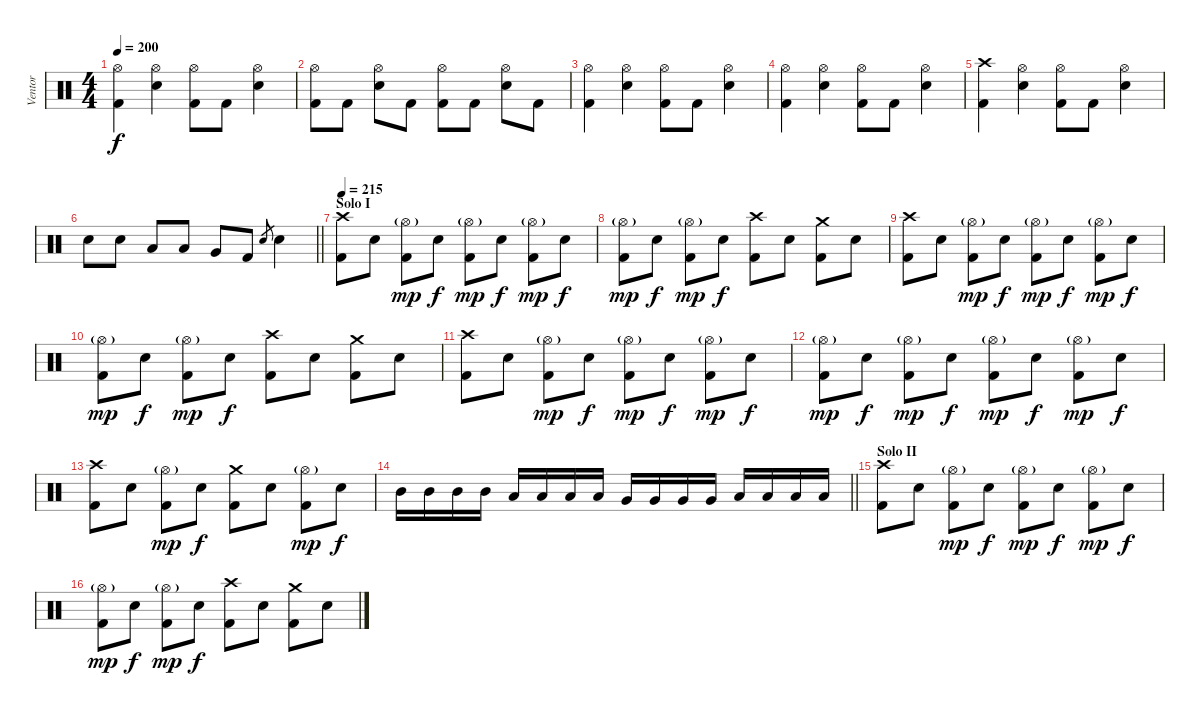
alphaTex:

\track ("Ventor" "Ventor") {instrument percussion}
\staff {score}
\articulation defaults
\ts (4 4)
\tempo 200
\clef neutral
\ks c
("Hi-Hat (open)" "Kick (hit) 2").4{dy f} ("Hi-Hat (open)" "Electric Snare (hit)").4 ("Hi-Hat (open)" "Kick (hit) 2").8 "Kick (hit) 2".8 ("Hi-Hat (open)" "Electric Snare (hit)").4 |
("Hi-Hat (open)" "Kick (hit) 2").8 "Kick (hit) 2".8 ("Hi-Hat (open)" "Electric Snare (hit)").8 "Kick (hit) 2".8 ("Hi-Hat (open)" "Kick (hit) 2").8 "Kick (hit) 2".8 ("Hi-Hat (open)" "Electric Snare (hit)").8 "Kick (hit) 2".8 |
("Hi-Hat (open)" "Kick (hit) 2").4 ("Hi-Hat (open)" "Electric Snare (hit)").4 ("Hi-Hat (open)" "Kick (hit) 2").8 "Kick (hit) 2".8 ("Hi-Hat (open)" "Electric Snare (hit)").4 |
("Hi-Hat (open)" "Kick (hit) 2").4 ("Hi-Hat (open)" "Electric Snare (hit)").4 ("Hi-Hat (open)" "Kick (hit) 2").8 "Kick (hit) 2".8 ("Hi-Hat (open)" "Electric Snare (hit)").4 |
("Crash high (hit)" "Kick (hit) 2").4 ("Hi-Hat (open)" "Electric Snare (hit)").4 ("Hi-Hat (open)" "Kick (hit) 2").8 "Kick (hit) 2".8 ("Hi-Hat (open)" "Electric Snare (hit)").4 |
\barLineRight lightlight "Electric Snare (hit)".8 "Electric Snare (hit)".8 "Low Tom (hit)".8 "Low Tom (hit)".8 "Very Low Tom (hit)".8 "Kick (hit) 2".8 "Electric Snare (hit)".8{gr} "Electric Snare (hit)".4
|
\section ("" "Solo I")
\tempo 215
("Crash high (hit)" "Kick (hit) 2").8 "Electric Snare (hit)".8 ("Hi-Hat (open)"{g} "Kick (hit) 2").8{dy mp} "Electric Snare (hit)".8{dy f} ("Hi-Hat (open)"{g} "Kick (hit) 2").8{dy mp} "Electric Snare (hit)".8{dy f} ("Hi-Hat (open)"{g} "Kick (hit) 2").8{dy mp} "Electric Snare (hit)".8{dy f} |
("Hi-Hat (open)"{g} "Kick (hit) 2").8{dy mp} "Electric Snare (hit)".8{dy f} ("Hi-Hat (open)"{g} "Kick (hit) 2").8{dy mp} "Electric Snare (hit)".8{dy f} ("Crash high (hit)" "Kick (hit) 2").8 "Electric Snare (hit)".8 ("Crash medium (hit)" "Kick (hit) 2").8 "Electric Snare (hit)".8 |
("Crash high (hit)" "Kick (hit) 2").8 "Electric Snare (hit)".8 ("Hi-Hat (open)"{g} "Kick (hit) 2").8{dy mp} "Electric Snare (hit)".8{dy f} ("Hi-Hat (open)"{g} "Kick (hit) 2").8{dy mp} "Electric Snare (hit)".8{dy f} ("Hi-Hat (open)"{g} "Kick (hit) 2").8{dy mp} "Electric Snare (hit)".8{dy f} |
("Hi-Hat (open)"{g} "Kick (hit) 2").8{dy mp} "Electric Snare (hit)".8{dy f} ("Hi-Hat (open)"{g} "Kick (hit) 2").8{dy mp} "Electric Snare (hit)".8{dy f} ("Crash high (hit)" "Kick (hit) 2").8 "Electric Snare (hit)".8 ("Crash medium (hit)" "Kick (hit) 2").8 "Electric Snare (hit)".8 |
("Crash high (hit)" "Kick (hit) 2").8 "Electric Snare (hit)".8 ("Hi-Hat (open)"{g} "Kick (hit) 2").8{dy mp} "Electric Snare (hit)".8{dy f} ("Hi-Hat (open)"{g} "Kick (hit) 2").8{dy mp} "Electric Snare (hit)".8{dy f} ("Hi-Hat (open)"{g} "Kick (hit) 2").8{dy mp} "Electric Snare (hit)".8{dy f} |
("Hi-Hat (open)"{g} "Kick (hit) 2").8{dy mp} "Electric Snare (hit)".8{dy f} ("Hi-Hat (open)"{g} "Kick (hit) 2").8{dy mp} "Electric Snare (hit)".8{dy f} ("Hi-Hat (open)"{g} "Kick (hit) 2").8{dy mp} "Electric Snare (hit)".8{dy f} ("Hi-Hat (open)"{g} "Kick (hit) 2").8{dy mp} "Electric Snare (hit)".8{dy f} |
("Crash high (hit)" "Kick (hit) 2").8 "Electric Snare (hit)".8 ("Hi-Hat (open)"{g} "Kick (hit) 2").8{dy mp} "Electric Snare (hit)".8{dy f} ("Crash medium (hit)" "Kick (hit) 2").8 "Electric Snare (hit)".8 ("Hi-Hat (open)"{g} "Kick (hit) 2").8{dy mp} "Electric Snare (hit)".8{dy f} |
\barLineRight lightlight "Mid Tom (hit)".16 "Mid Tom (hit)".16 "Mid Tom (hit)".16 "Mid Tom (hit)".16 "Low Tom (hit)".16 "Low Tom (hit)".16 "Low Tom (hit)".16 "Low Tom (hit)".16 "Very Low Tom (hit)".16 "Very Low Tom (hit)".16 "Very Low Tom (hit)".16 "Very Low Tom (hit)".16 "Low Floor Tom (hit)".16 "Low Floor Tom (hit)".16 "Low Floor Tom (hit)".16 "Low Floor Tom (hit)".16
|
\section ("" "Solo II")
("Crash high (hit)" "Kick (hit) 2").8 "Electric Snare (hit)".8 ("Hi-Hat (open)"{g} "Kick (hit) 2").8{dy mp} "Electric Snare (hit)".8{dy f} ("Hi-Hat (open)"{g} "Kick (hit) 2").8{dy mp} "Electric Snare (hit)".8{dy f} ("Hi-Hat (open)"{g} "Kick (hit) 2").8{dy mp} "Electric Snare (hit)".8{dy f} |
("Hi-Hat (open)"{g} "Kick (hit) 2").8{dy mp} "Electric Snare (hit)".8{dy f} ("Hi-Hat (open)"{g} "Kick (hit) 2").8{dy mp} "Electric Snare (hit)".8{dy f} ("Crash high (hit)" "Kick (hit) 2").8 "Electric Snare (hit)".8 ("Crash medium (hit)" "Kick (hit) 2").8 "Electric Snare (hit)".8
